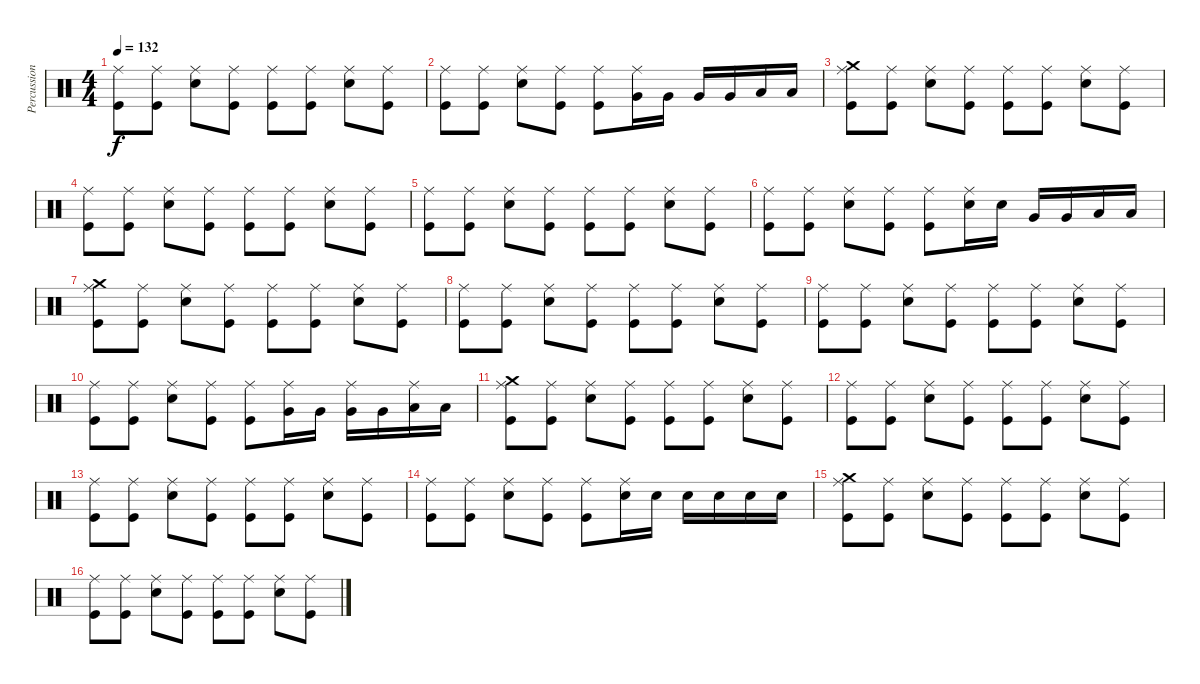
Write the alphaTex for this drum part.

\track ("Percussions" "Percussion") {instrument percussion}
\staff {score}
\articulation defaults
\ts (4 4)
\tempo 132
\clef neutral
\ks c
("Ride (middle)" "Kick (hit)").8{dy f} ("Ride (middle)" "Kick (hit)").8 ("Ride (middle)" "Snare (hit) 2").8 ("Ride (middle)" "Kick (hit)").8 ("Ride (middle)" "Kick (hit)").8 ("Ride (middle)" "Kick (hit)").8 ("Ride (middle)" "Snare (hit) 2").8 ("Ride (middle)" "Kick (hit)").8 |
("Ride (middle)" "Kick (hit)").8 ("Ride (middle)" "Kick (hit)").8 ("Ride (middle)" "Snare (hit) 2").8 ("Ride (middle)" "Kick (hit)").8 ("Ride (middle)" "Kick (hit)").8 ("Ride (middle)" "Very Low Tom (hit)").16 "Very Low Tom (hit)".16 "Very Low Tom (hit)".16 "Very Low Tom (hit)".16 "Low Floor Tom (hit)".16 "Low Floor Tom (hit)".16 |
("Ride (middle)" "Crash medium (hit)" "Kick (hit)").8 ("Ride (middle)" "Kick (hit)").8 ("Ride (middle)" "Snare (hit) 2").8 ("Ride (middle)" "Kick (hit)").8 ("Ride (middle)" "Kick (hit)").8 ("Ride (middle)" "Kick (hit)").8 ("Ride (middle)" "Snare (hit) 2").8 ("Ride (middle)" "Kick (hit)").8 |
("Ride (middle)" "Kick (hit)").8 ("Ride (middle)" "Kick (hit)").8 ("Ride (middle)" "Snare (hit) 2").8 ("Ride (middle)" "Kick (hit)").8 ("Ride (middle)" "Kick (hit)").8 ("Ride (middle)" "Kick (hit)").8 ("Ride (middle)" "Snare (hit) 2").8 ("Ride (middle)" "Kick (hit)").8 |
("Ride (middle)" "Kick (hit)").8 ("Ride (middle)" "Kick (hit)").8 ("Ride (middle)" "Snare (hit) 2").8 ("Ride (middle)" "Kick (hit)").8 ("Ride (middle)" "Kick (hit)").8 ("Ride (middle)" "Kick (hit)").8 ("Ride (middle)" "Snare (hit) 2").8 ("Ride (middle)" "Kick (hit)").8 |
("Ride (middle)" "Kick (hit)").8 ("Ride (middle)" "Kick (hit)").8 ("Ride (middle)" "Snare (hit) 2").8 ("Ride (middle)" "Kick (hit)").8 ("Ride (middle)" "Kick (hit)").8 ("Ride (middle)" "Snare (hit) 2").16 "Snare (hit) 2".16 "Very Low Tom (hit)".16 "Very Low Tom (hit)".16 "Low Floor Tom (hit)".16 "Low Floor Tom (hit)".16 |
("Ride (middle)" "Crash medium (hit)" "Kick (hit)").8 ("Ride (middle)" "Kick (hit)").8 ("Ride (middle)" "Snare (hit) 2").8 ("Ride (middle)" "Kick (hit)").8 ("Ride (middle)" "Kick (hit)").8 ("Ride (middle)" "Kick (hit)").8 ("Ride (middle)" "Snare (hit) 2").8 ("Ride (middle)" "Kick (hit)").8 |
("Ride (middle)" "Kick (hit)").8 ("Ride (middle)" "Kick (hit)").8 ("Ride (middle)" "Snare (hit) 2").8 ("Ride (middle)" "Kick (hit)").8 ("Ride (middle)" "Kick (hit)").8 ("Ride (middle)" "Kick (hit)").8 ("Ride (middle)" "Snare (hit) 2").8 ("Ride (middle)" "Kick (hit)").8 |
("Ride (middle)" "Kick (hit)").8 ("Ride (middle)" "Kick (hit)").8 ("Ride (middle)" "Snare (hit) 2").8 ("Ride (middle)" "Kick (hit)").8 ("Ride (middle)" "Kick (hit)").8 ("Ride (middle)" "Kick (hit)").8 ("Ride (middle)" "Snare (hit) 2").8 ("Ride (middle)" "Kick (hit)").8 |
("Ride (middle)" "Kick (hit)").8 ("Ride (middle)" "Kick (hit)").8 ("Ride (middle)" "Snare (hit) 2").8 ("Ride (middle)" "Kick (hit)").8 ("Ride (middle)" "Kick (hit)").8 ("Ride (middle)" "Very Low Tom (hit)").16 "Very Low Tom (hit)".16 ("Ride (middle)" "Very Low Tom (hit)").16 "Very Low Tom (hit)".16 ("Ride (middle)" "Low Floor Tom (hit)").16 "Low Floor Tom (hit)".16 |
("Ride (middle)" "Crash medium (hit)" "Kick (hit)").8 ("Ride (middle)" "Kick (hit)").8 ("Ride (middle)" "Snare (hit) 2").8 ("Ride (middle)" "Kick (hit)").8 ("Ride (middle)" "Kick (hit)").8 ("Ride (middle)" "Kick (hit)").8 ("Ride (middle)" "Snare (hit) 2").8 ("Ride (middle)" "Kick (hit)").8 |
("Ride (middle)" "Kick (hit)").8 ("Ride (middle)" "Kick (hit)").8 ("Ride (middle)" "Snare (hit) 2").8 ("Ride (middle)" "Kick (hit)").8 ("Ride (middle)" "Kick (hit)").8 ("Ride (middle)" "Kick (hit)").8 ("Ride (middle)" "Snare (hit) 2").8 ("Ride (middle)" "Kick (hit)").8 |
("Ride (middle)" "Kick (hit)").8 ("Ride (middle)" "Kick (hit)").8 ("Ride (middle)" "Snare (hit) 2").8 ("Ride (middle)" "Kick (hit)").8 ("Ride (middle)" "Kick (hit)").8 ("Ride (middle)" "Kick (hit)").8 ("Ride (middle)" "Snare (hit) 2").8 ("Ride (middle)" "Kick (hit)").8 |
("Ride (middle)" "Kick (hit)").8 ("Ride (middle)" "Kick (hit)").8 ("Ride (middle)" "Snare (hit) 2").8 ("Ride (middle)" "Kick (hit)").8 ("Ride (middle)" "Kick (hit)").8 ("Ride (middle)" "Snare (hit) 2").16 "Snare (hit) 2".16 "Snare (hit) 2".16 "Snare (hit) 2".16 "Snare (hit) 2".16 "Snare (hit) 2".16 |
("Ride (middle)" "Crash medium (hit)" "Kick (hit)").8 ("Ride (middle)" "Kick (hit)").8 ("Ride (middle)" "Snare (hit) 2").8 ("Ride (middle)" "Kick (hit)").8 ("Ride (middle)" "Kick (hit)").8 ("Ride (middle)" "Kick (hit)").8 ("Ride (middle)" "Snare (hit) 2").8 ("Ride (middle)" "Kick (hit)").8 |
("Ride (middle)" "Kick (hit)").8 ("Ride (middle)" "Kick (hit)").8 ("Ride (middle)" "Snare (hit) 2").8 ("Ride (middle)" "Kick (hit)").8 ("Ride (middle)" "Kick (hit)").8 ("Ride (middle)" "Kick (hit)").8 ("Ride (middle)" "Snare (hit) 2").8 ("Ride (middle)" "Kick (hit)").8
